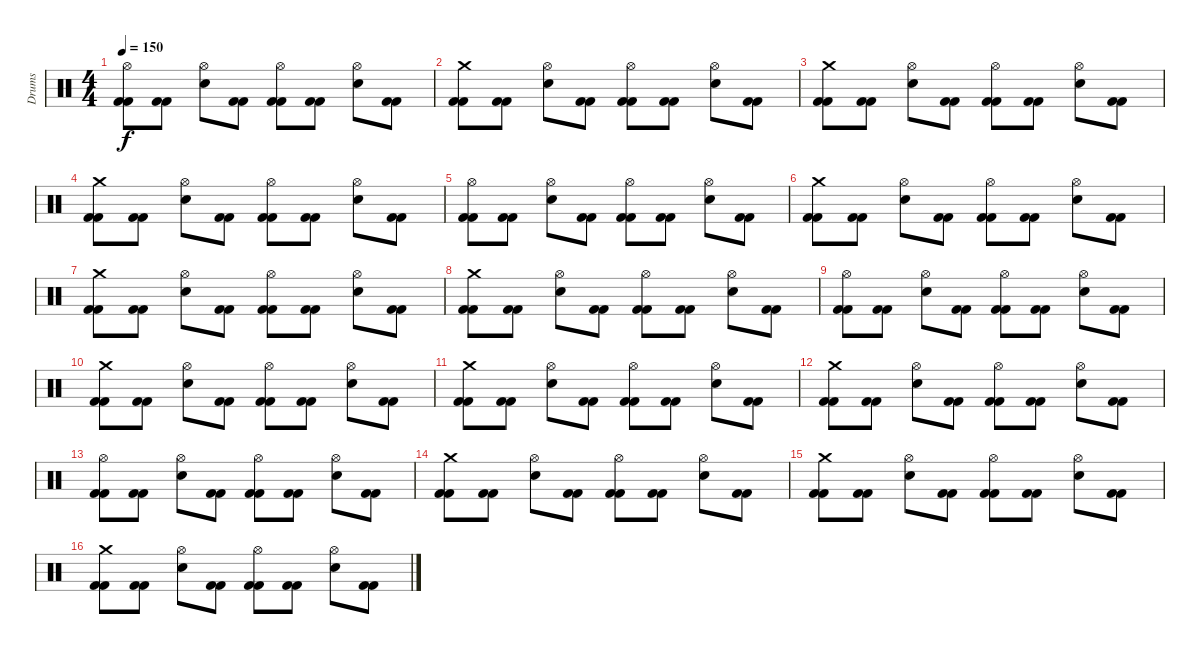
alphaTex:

\track ("Drums" "Drums") {instrument percussion}
\staff {score}
\articulation defaults
\ts (4 4)
\tempo 150
\clef neutral
\ks c
("Hi-Hat (open)" "Kick (hit) 2" "Kick (hit) 2").8{dy f} ("Kick (hit) 2" "Kick (hit) 2").8 ("Hi-Hat (open)" "Electric Snare (hit)").8 ("Kick (hit) 2" "Kick (hit) 2").8 ("Hi-Hat (open)" "Kick (hit) 2" "Kick (hit) 2").8 ("Kick (hit) 2" "Kick (hit) 2").8 ("Electric Snare (hit)" "Hi-Hat (open)").8 ("Kick (hit) 2" "Kick (hit) 2").8 |
("Crash medium (hit)" "Kick (hit) 2" "Kick (hit) 2").8 ("Kick (hit) 2" "Kick (hit) 2").8 ("Hi-Hat (open)" "Electric Snare (hit)").8 ("Kick (hit) 2" "Kick (hit) 2").8 ("Hi-Hat (open)" "Kick (hit) 2" "Kick (hit) 2").8 ("Kick (hit) 2" "Kick (hit) 2").8 ("Electric Snare (hit)" "Hi-Hat (open)").8 ("Kick (hit) 2" "Kick (hit) 2").8 |
("Crash medium (hit)" "Kick (hit) 2" "Kick (hit) 2").8 ("Kick (hit) 2" "Kick (hit) 2").8 ("Hi-Hat (open)" "Electric Snare (hit)").8 ("Kick (hit) 2" "Kick (hit) 2").8 ("Hi-Hat (open)" "Kick (hit) 2" "Kick (hit) 2").8 ("Kick (hit) 2" "Kick (hit) 2").8 ("Electric Snare (hit)" "Hi-Hat (open)").8 ("Kick (hit) 2" "Kick (hit) 2").8 |
("Crash medium (hit)" "Kick (hit) 2" "Kick (hit) 2").8 ("Kick (hit) 2" "Kick (hit) 2").8 ("Hi-Hat (open)" "Electric Snare (hit)").8 ("Kick (hit) 2" "Kick (hit) 2").8 ("Hi-Hat (open)" "Kick (hit) 2" "Kick (hit) 2").8 ("Kick (hit) 2" "Kick (hit) 2").8 ("Electric Snare (hit)" "Hi-Hat (open)").8 ("Kick (hit) 2" "Kick (hit) 2").8 |
("Hi-Hat (open)" "Kick (hit) 2" "Kick (hit) 2").8 ("Kick (hit) 2" "Kick (hit) 2").8 ("Hi-Hat (open)" "Electric Snare (hit)").8 ("Kick (hit) 2" "Kick (hit) 2").8 ("Hi-Hat (open)" "Kick (hit) 2" "Kick (hit) 2").8 ("Kick (hit) 2" "Kick (hit) 2").8 ("Electric Snare (hit)" "Hi-Hat (open)").8 ("Kick (hit) 2" "Kick (hit) 2").8 |
("Crash medium (hit)" "Kick (hit) 2" "Kick (hit) 2").8 ("Kick (hit) 2" "Kick (hit) 2").8 ("Hi-Hat (open)" "Electric Snare (hit)").8 ("Kick (hit) 2" "Kick (hit) 2").8 ("Hi-Hat (open)" "Kick (hit) 2" "Kick (hit) 2").8 ("Kick (hit) 2" "Kick (hit) 2").8 ("Electric Snare (hit)" "Hi-Hat (open)").8 ("Kick (hit) 2" "Kick (hit) 2").8 |
("Crash medium (hit)" "Kick (hit) 2" "Kick (hit) 2").8 ("Kick (hit) 2" "Kick (hit) 2").8 ("Hi-Hat (open)" "Electric Snare (hit)").8 ("Kick (hit) 2" "Kick (hit) 2").8 ("Hi-Hat (open)" "Kick (hit) 2" "Kick (hit) 2").8 ("Kick (hit) 2" "Kick (hit) 2").8 ("Electric Snare (hit)" "Hi-Hat (open)").8 ("Kick (hit) 2" "Kick (hit) 2").8 |
("Crash medium (hit)" "Kick (hit) 2" "Kick (hit) 2").8 ("Kick (hit) 2" "Kick (hit) 2").8 ("Hi-Hat (open)" "Electric Snare (hit)").8 ("Kick (hit) 2" "Kick (hit) 2").8 ("Hi-Hat (open)" "Kick (hit) 2" "Kick (hit) 2").8 ("Kick (hit) 2" "Kick (hit) 2").8 ("Electric Snare (hit)" "Hi-Hat (open)").8 ("Kick (hit) 2" "Kick (hit) 2").8 |
("Hi-Hat (open)" "Kick (hit) 2" "Kick (hit) 2").8 ("Kick (hit) 2" "Kick (hit) 2").8 ("Hi-Hat (open)" "Electric Snare (hit)").8 ("Kick (hit) 2" "Kick (hit) 2").8 ("Hi-Hat (open)" "Kick (hit) 2" "Kick (hit) 2").8 ("Kick (hit) 2" "Kick (hit) 2").8 ("Electric Snare (hit)" "Hi-Hat (open)").8 ("Kick (hit) 2" "Kick (hit) 2").8 |
("Crash medium (hit)" "Kick (hit) 2" "Kick (hit) 2").8 ("Kick (hit) 2" "Kick (hit) 2").8 ("Hi-Hat (open)" "Electric Snare (hit)").8 ("Kick (hit) 2" "Kick (hit) 2").8 ("Hi-Hat (open)" "Kick (hit) 2" "Kick (hit) 2").8 ("Kick (hit) 2" "Kick (hit) 2").8 ("Electric Snare (hit)" "Hi-Hat (open)").8 ("Kick (hit) 2" "Kick (hit) 2").8 |
("Crash medium (hit)" "Kick (hit) 2" "Kick (hit) 2").8 ("Kick (hit) 2" "Kick (hit) 2").8 ("Hi-Hat (open)" "Electric Snare (hit)").8 ("Kick (hit) 2" "Kick (hit) 2").8 ("Hi-Hat (open)" "Kick (hit) 2" "Kick (hit) 2").8 ("Kick (hit) 2" "Kick (hit) 2").8 ("Electric Snare (hit)" "Hi-Hat (open)").8 ("Kick (hit) 2" "Kick (hit) 2").8 |
("Crash medium (hit)" "Kick (hit) 2" "Kick (hit) 2").8 ("Kick (hit) 2" "Kick (hit) 2").8 ("Hi-Hat (open)" "Electric Snare (hit)").8 ("Kick (hit) 2" "Kick (hit) 2").8 ("Hi-Hat (open)" "Kick (hit) 2" "Kick (hit) 2").8 ("Kick (hit) 2" "Kick (hit) 2").8 ("Electric Snare (hit)" "Hi-Hat (open)").8 ("Kick (hit) 2" "Kick (hit) 2").8 |
("Hi-Hat (open)" "Kick (hit) 2" "Kick (hit) 2").8 ("Kick (hit) 2" "Kick (hit) 2").8 ("Hi-Hat (open)" "Electric Snare (hit)").8 ("Kick (hit) 2" "Kick (hit) 2").8 ("Hi-Hat (open)" "Kick (hit) 2" "Kick (hit) 2").8 ("Kick (hit) 2" "Kick (hit) 2").8 ("Electric Snare (hit)" "Hi-Hat (open)").8 ("Kick (hit) 2" "Kick (hit) 2").8 |
("Crash medium (hit)" "Kick (hit) 2" "Kick (hit) 2").8 ("Kick (hit) 2" "Kick (hit) 2").8 ("Hi-Hat (open)" "Electric Snare (hit)").8 ("Kick (hit) 2" "Kick (hit) 2").8 ("Hi-Hat (open)" "Kick (hit) 2" "Kick (hit) 2").8 ("Kick (hit) 2" "Kick (hit) 2").8 ("Electric Snare (hit)" "Hi-Hat (open)").8 ("Kick (hit) 2" "Kick (hit) 2").8 |
("Crash medium (hit)" "Kick (hit) 2" "Kick (hit) 2").8 ("Kick (hit) 2" "Kick (hit) 2").8 ("Hi-Hat (open)" "Electric Snare (hit)").8 ("Kick (hit) 2" "Kick (hit) 2").8 ("Hi-Hat (open)" "Kick (hit) 2" "Kick (hit) 2").8 ("Kick (hit) 2" "Kick (hit) 2").8 ("Electric Snare (hit)" "Hi-Hat (open)").8 ("Kick (hit) 2" "Kick (hit) 2").8 |
("Crash medium (hit)" "Kick (hit) 2" "Kick (hit) 2").8 ("Kick (hit) 2" "Kick (hit) 2").8 ("Hi-Hat (open)" "Electric Snare (hit)").8 ("Kick (hit) 2" "Kick (hit) 2").8 ("Hi-Hat (open)" "Kick (hit) 2" "Kick (hit) 2").8 ("Kick (hit) 2" "Kick (hit) 2").8 ("Electric Snare (hit)" "Hi-Hat (open)").8 ("Kick (hit) 2" "Kick (hit) 2").8
